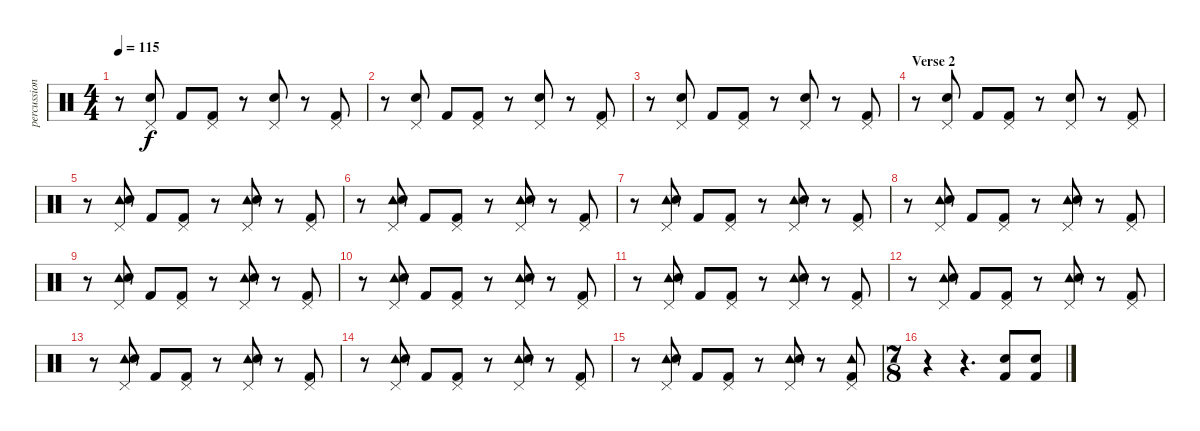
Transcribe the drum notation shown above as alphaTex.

\track ("percussion - vom" "percussion") {instrument percussion}
\staff {score}
\articulation defaults
\ts (4 4)
\tempo 115
\clef neutral
\ks c
r.8{dy f} ("Pedal Hi-Hat (hit)" "Snare (hit) 2").8 "Kick (hit) 2".8 ("Pedal Hi-Hat (hit)" "Kick (hit) 2").8 r.8 ("Pedal Hi-Hat (hit)" "Snare (hit) 2").8 r.8 ("Pedal Hi-Hat (hit)" "Kick (hit) 2").8 |
r.8 ("Pedal Hi-Hat (hit)" "Snare (hit) 2").8 "Kick (hit) 2".8 ("Pedal Hi-Hat (hit)" "Kick (hit) 2").8 r.8 ("Pedal Hi-Hat (hit)" "Snare (hit) 2").8 r.8 ("Pedal Hi-Hat (hit)" "Kick (hit) 2").8 |
r.8 ("Pedal Hi-Hat (hit)" "Snare (hit) 2").8 "Kick (hit) 2".8 ("Pedal Hi-Hat (hit)" "Kick (hit) 2").8 r.8 ("Pedal Hi-Hat (hit)" "Snare (hit) 2").8 r.8 ("Pedal Hi-Hat (hit)" "Kick (hit) 2").8 |
\section ("" "Verse 2")
r.8 ("Pedal Hi-Hat (hit)" "Snare (hit) 2").8 "Kick (hit) 2".8 ("Pedal Hi-Hat (hit)" "Kick (hit) 2").8 r.8 ("Pedal Hi-Hat (hit)" "Snare (hit) 2").8 r.8 ("Pedal Hi-Hat (hit)" "Kick (hit) 2").8 |
r.8 ("Pedal Hi-Hat (hit)" "Tambourine (hit)" "Snare (hit) 2").8 "Kick (hit) 2".8 ("Pedal Hi-Hat (hit)" "Kick (hit) 2").8 r.8 ("Pedal Hi-Hat (hit)" "Tambourine (hit)" "Snare (hit) 2").8 r.8 ("Pedal Hi-Hat (hit)" "Kick (hit) 2").8 |
r.8 ("Pedal Hi-Hat (hit)" "Tambourine (hit)" "Snare (hit) 2").8 "Kick (hit) 2".8 ("Pedal Hi-Hat (hit)" "Kick (hit) 2").8 r.8 ("Pedal Hi-Hat (hit)" "Tambourine (hit)" "Snare (hit) 2").8 r.8 ("Pedal Hi-Hat (hit)" "Kick (hit) 2").8 |
r.8 ("Pedal Hi-Hat (hit)" "Tambourine (hit)" "Snare (hit) 2").8 "Kick (hit) 2".8 ("Pedal Hi-Hat (hit)" "Kick (hit) 2").8 r.8 ("Pedal Hi-Hat (hit)" "Tambourine (hit)" "Snare (hit) 2").8 r.8 ("Pedal Hi-Hat (hit)" "Kick (hit) 2").8 |
r.8 ("Pedal Hi-Hat (hit)" "Tambourine (hit)" "Snare (hit) 2").8 "Kick (hit) 2".8 ("Pedal Hi-Hat (hit)" "Kick (hit) 2").8 r.8 ("Pedal Hi-Hat (hit)" "Tambourine (hit)" "Snare (hit) 2").8 r.8 ("Pedal Hi-Hat (hit)" "Kick (hit) 2").8 |
r.8 ("Pedal Hi-Hat (hit)" "Tambourine (hit)" "Snare (hit) 2").8 "Kick (hit) 2".8 ("Pedal Hi-Hat (hit)" "Kick (hit) 2").8 r.8 ("Pedal Hi-Hat (hit)" "Tambourine (hit)" "Snare (hit) 2").8 r.8 ("Pedal Hi-Hat (hit)" "Kick (hit) 2").8 |
r.8 ("Pedal Hi-Hat (hit)" "Tambourine (hit)" "Snare (hit) 2").8 "Kick (hit) 2".8 ("Pedal Hi-Hat (hit)" "Kick (hit) 2").8 r.8 ("Pedal Hi-Hat (hit)" "Tambourine (hit)" "Snare (hit) 2").8 r.8 ("Pedal Hi-Hat (hit)" "Kick (hit) 2").8 |
r.8 ("Pedal Hi-Hat (hit)" "Tambourine (hit)" "Snare (hit) 2").8 "Kick (hit) 2".8 ("Pedal Hi-Hat (hit)" "Kick (hit) 2").8 r.8 ("Pedal Hi-Hat (hit)" "Tambourine (hit)" "Snare (hit) 2").8 r.8 ("Pedal Hi-Hat (hit)" "Kick (hit) 2").8 |
r.8 ("Pedal Hi-Hat (hit)" "Tambourine (hit)" "Snare (hit) 2").8 "Kick (hit) 2".8 ("Pedal Hi-Hat (hit)" "Kick (hit) 2").8 r.8 ("Pedal Hi-Hat (hit)" "Tambourine (hit)" "Snare (hit) 2").8 r.8 ("Pedal Hi-Hat (hit)" "Kick (hit) 2").8 |
r.8 ("Pedal Hi-Hat (hit)" "Tambourine (hit)" "Snare (hit) 2").8 "Kick (hit) 2".8 ("Pedal Hi-Hat (hit)" "Kick (hit) 2").8 r.8 ("Pedal Hi-Hat (hit)" "Tambourine (hit)" "Snare (hit) 2").8 r.8 ("Pedal Hi-Hat (hit)" "Kick (hit) 2").8 |
r.8 ("Pedal Hi-Hat (hit)" "Tambourine (hit)" "Snare (hit) 2").8 "Kick (hit) 2".8 ("Pedal Hi-Hat (hit)" "Kick (hit) 2").8 r.8 ("Pedal Hi-Hat (hit)" "Tambourine (hit)" "Snare (hit) 2").8 r.8 ("Pedal Hi-Hat (hit)" "Kick (hit) 2").8 |
r.8 ("Pedal Hi-Hat (hit)" "Tambourine (hit)" "Snare (hit) 2").8 "Kick (hit) 2".8 ("Pedal Hi-Hat (hit)" "Kick (hit) 2").8 r.8 ("Pedal Hi-Hat (hit)" "Tambourine (hit)" "Snare (hit) 2").8 r.8 ("Pedal Hi-Hat (hit)" "Tambourine (hit)" "Kick (hit) 2").8 |
\ts (7 8)
r.4 r.4{d} ("Snare (hit) 2" "Kick (hit) 2").8 ("Snare (hit) 2" "Kick (hit) 2").8
